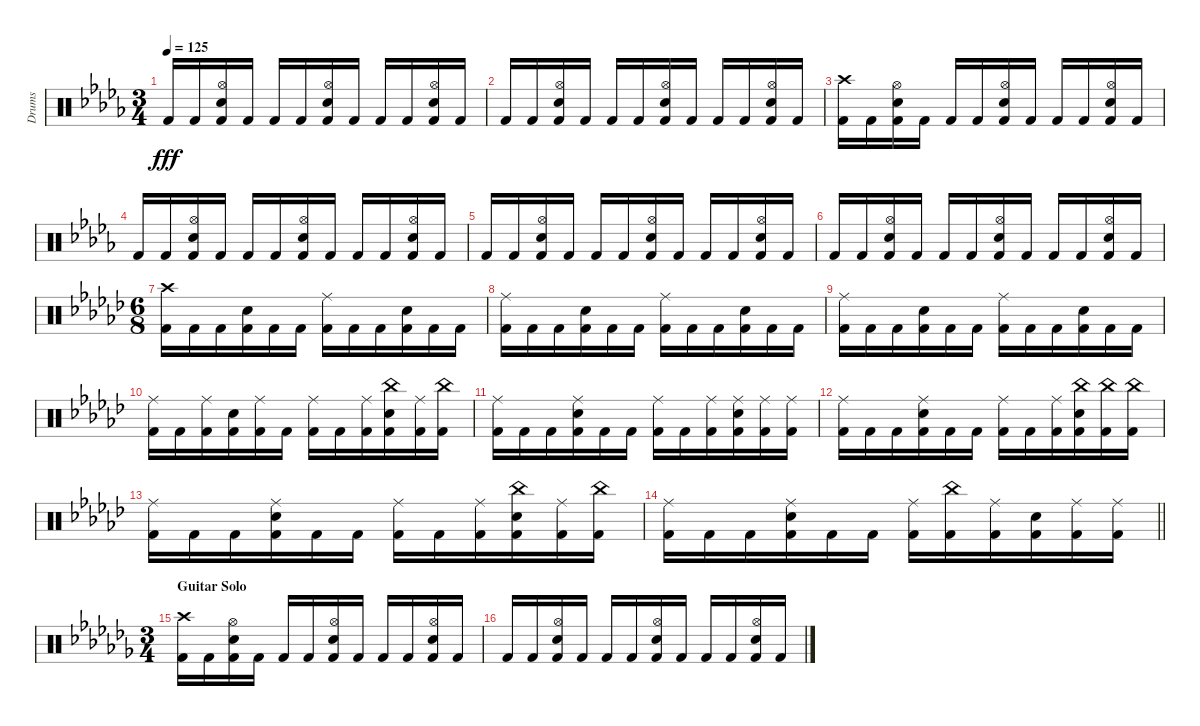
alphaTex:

\track ("Drums" "Drums") {instrument percussion}
\staff {score}
\articulation defaults
\ts (3 4)
\tempo 125
\clef neutral
\ks bbminor "Kick (hit) 2".16{dy fff} "Kick (hit) 2".16
("Hi-Hat (open)" "Snare (hit) 2" "Kick (hit) 2").16 "Kick (hit) 2".16 "Kick (hit) 2".16 "Kick (hit) 2".16 ("Hi-Hat (open)" "Snare (hit) 2" "Kick (hit) 2").16 "Kick (hit) 2".16 "Kick (hit) 2".16 "Kick (hit) 2".16 ("Hi-Hat (open)" "Snare (hit) 2" "Kick (hit) 2").16 "Kick (hit) 2".16 |
"Kick (hit) 2".16 "Kick (hit) 2".16 ("Hi-Hat (open)" "Snare (hit) 2" "Kick (hit) 2").16 "Kick (hit) 2".16 "Kick (hit) 2".16 "Kick (hit) 2".16 ("Hi-Hat (open)" "Snare (hit) 2" "Kick (hit) 2").16 "Kick (hit) 2".16 "Kick (hit) 2".16 "Kick (hit) 2".16 ("Hi-Hat (open)" "Snare (hit) 2" "Kick (hit) 2").16 "Kick (hit) 2".16 |
("Crash high (hit)" "Kick (hit) 2").16 "Kick (hit) 2".16 ("Hi-Hat (open)" "Snare (hit) 2" "Kick (hit) 2").16 "Kick (hit) 2".16 "Kick (hit) 2".16 "Kick (hit) 2".16 ("Hi-Hat (open)" "Snare (hit) 2" "Kick (hit) 2").16 "Kick (hit) 2".16 "Kick (hit) 2".16 "Kick (hit) 2".16 ("Hi-Hat (open)" "Snare (hit) 2" "Kick (hit) 2").16 "Kick (hit) 2".16 |
"Kick (hit) 2".16 "Kick (hit) 2".16 ("Hi-Hat (open)" "Snare (hit) 2" "Kick (hit) 2").16 "Kick (hit) 2".16 "Kick (hit) 2".16 "Kick (hit) 2".16 ("Hi-Hat (open)" "Snare (hit) 2" "Kick (hit) 2").16 "Kick (hit) 2".16 "Kick (hit) 2".16 "Kick (hit) 2".16 ("Hi-Hat (open)" "Snare (hit) 2" "Kick (hit) 2").16 "Kick (hit) 2".16 |
"Kick (hit) 2".16 "Kick (hit) 2".16 ("Hi-Hat (open)" "Snare (hit) 2" "Kick (hit) 2").16 "Kick (hit) 2".16 "Kick (hit) 2".16 "Kick (hit) 2".16 ("Hi-Hat (open)" "Snare (hit) 2" "Kick (hit) 2").16 "Kick (hit) 2".16 "Kick (hit) 2".16 "Kick (hit) 2".16 ("Hi-Hat (open)" "Snare (hit) 2" "Kick (hit) 2").16 "Kick (hit) 2".16 |
"Kick (hit) 2".16 "Kick (hit) 2".16 ("Hi-Hat (open)" "Snare (hit) 2" "Kick (hit) 2").16 "Kick (hit) 2".16 "Kick (hit) 2".16 "Kick (hit) 2".16 ("Hi-Hat (open)" "Snare (hit) 2" "Kick (hit) 2").16 "Kick (hit) 2".16 "Kick (hit) 2".16 "Kick (hit) 2".16 ("Hi-Hat (open)" "Snare (hit) 2" "Kick (hit) 2").16 "Kick (hit) 2".16 |
\ts (6 8)
\ks ebminor
("Crash high (hit)" "Kick (hit) 2").16 "Kick (hit) 2".16 "Kick (hit) 2".16 ("Snare (hit) 2" "Kick (hit) 2").16 "Kick (hit) 2".16 "Kick (hit) 2".16 ("Ride (middle)" "Kick (hit) 2").16 "Kick (hit) 2".16 "Kick (hit) 2".16 ("Snare (hit) 2" "Kick (hit) 2").16 "Kick (hit) 2".16 "Kick (hit) 2".16 |
("Ride (middle)" "Kick (hit) 2").16 "Kick (hit) 2".16 "Kick (hit) 2".16 ("Snare (hit) 2" "Kick (hit) 2").16 "Kick (hit) 2".16 "Kick (hit) 2".16 ("Ride (middle)" "Kick (hit) 2").16 "Kick (hit) 2".16 "Kick (hit) 2".16 ("Snare (hit) 2" "Kick (hit) 2").16 "Kick (hit) 2".16 "Kick (hit) 2".16 |
("Ride (middle)" "Kick (hit) 2").16 "Kick (hit) 2".16 "Kick (hit) 2".16 ("Snare (hit) 2" "Kick (hit) 2").16 "Kick (hit) 2".16 "Kick (hit) 2".16 ("Ride (middle)" "Kick (hit) 2").16 "Kick (hit) 2".16 "Kick (hit) 2".16 ("Snare (hit) 2" "Kick (hit) 2").16 "Kick (hit) 2".16 "Kick (hit) 2".16 |
("Ride (middle)" "Kick (hit) 2").16 "Kick (hit) 2".16 ("Ride (middle)" "Kick (hit) 2").16 ("Snare (hit) 2" "Kick (hit) 2").16 ("Ride (middle)" "Kick (hit) 2").16 "Kick (hit) 2".16 ("Ride (middle)" "Kick (hit) 2").16 "Kick (hit) 2".16 ("Ride (middle)" "Kick (hit) 2").16 ("China (hit)" "Snare (hit) 2" "Kick (hit) 2").16 ("Ride (middle)" "Kick (hit) 2").16 ("China (hit)" "Kick (hit) 2").16 |
("Ride (middle)" "Kick (hit) 2").16 "Kick (hit) 2".16 "Kick (hit) 2".16 ("Ride (middle)" "Snare (hit) 2" "Kick (hit) 2").16 "Kick (hit) 2".16 "Kick (hit) 2".16 ("Ride (middle)" "Kick (hit) 2").16 "Kick (hit) 2".16 ("Ride (middle)" "Kick (hit) 2").16 ("Ride (middle)" "Snare (hit) 2" "Kick (hit) 2").16 ("Ride (middle)" "Kick (hit) 2").16 ("Ride (middle)" "Kick (hit) 2").16 |
("Ride (middle)" "Kick (hit) 2").16 "Kick (hit) 2".16 "Kick (hit) 2".16 ("Ride (middle)" "Snare (hit) 2" "Kick (hit) 2").16 "Kick (hit) 2".16 "Kick (hit) 2".16 ("Ride (middle)" "Kick (hit) 2").16 "Kick (hit) 2".16 ("Ride (middle)" "Kick (hit) 2").16 ("China (hit)" "Snare (hit) 2" "Kick (hit) 2").16 ("China (hit)" "Kick (hit) 2").16 ("China (hit)" "Kick (hit) 2").16 |
("Ride (middle)" "Kick (hit) 2").16 "Kick (hit) 2".16 "Kick (hit) 2".16 ("Ride (middle)" "Snare (hit) 2" "Kick (hit) 2").16 "Kick (hit) 2".16 "Kick (hit) 2".16 ("Ride (middle)" "Kick (hit) 2").16 "Kick (hit) 2".16 ("Ride (middle)" "Kick (hit) 2").16 ("China (hit)" "Snare (hit) 2" "Kick (hit) 2").16 ("Ride (middle)" "Kick (hit) 2").16 ("China (hit)" "Kick (hit) 2").16 |
\barLineRight lightlight
("Ride (middle)" "Kick (hit) 2").16 "Kick (hit) 2".16 "Kick (hit) 2".16 ("Ride (middle)" "Snare (hit) 2" "Kick (hit) 2").16 "Kick (hit) 2".16 "Kick (hit) 2".16 ("Ride (middle)" "Kick (hit) 2").16 ("China (hit)" "Kick (hit) 2").16 ("Ride (middle)" "Kick (hit) 2").16 ("Snare (hit) 2" "Kick (hit) 2").16 ("Ride (middle)" "Kick (hit) 2").16 ("Ride (middle)" "Kick (hit) 2").16 |
\ts (3 4)
\section ("" "Guitar Solo")
\ks abminor
("Crash high (hit)" "Kick (hit) 2").16 "Kick (hit) 2".16 ("Hi-Hat (open)" "Snare (hit) 2" "Kick (hit) 2").16 "Kick (hit) 2".16 "Kick (hit) 2".16 "Kick (hit) 2".16 ("Hi-Hat (open)" "Snare (hit) 2" "Kick (hit) 2").16 "Kick (hit) 2".16 "Kick (hit) 2".16 "Kick (hit) 2".16 ("Hi-Hat (open)" "Snare (hit) 2" "Kick (hit) 2").16 "Kick (hit) 2".16 |
"Kick (hit) 2".16 "Kick (hit) 2".16 ("Hi-Hat (open)" "Snare (hit) 2" "Kick (hit) 2").16 "Kick (hit) 2".16 "Kick (hit) 2".16 "Kick (hit) 2".16 ("Hi-Hat (open)" "Snare (hit) 2" "Kick (hit) 2").16 "Kick (hit) 2".16 "Kick (hit) 2".16 "Kick (hit) 2".16 ("Hi-Hat (open)" "Snare (hit) 2" "Kick (hit) 2").16 "Kick (hit) 2".16
